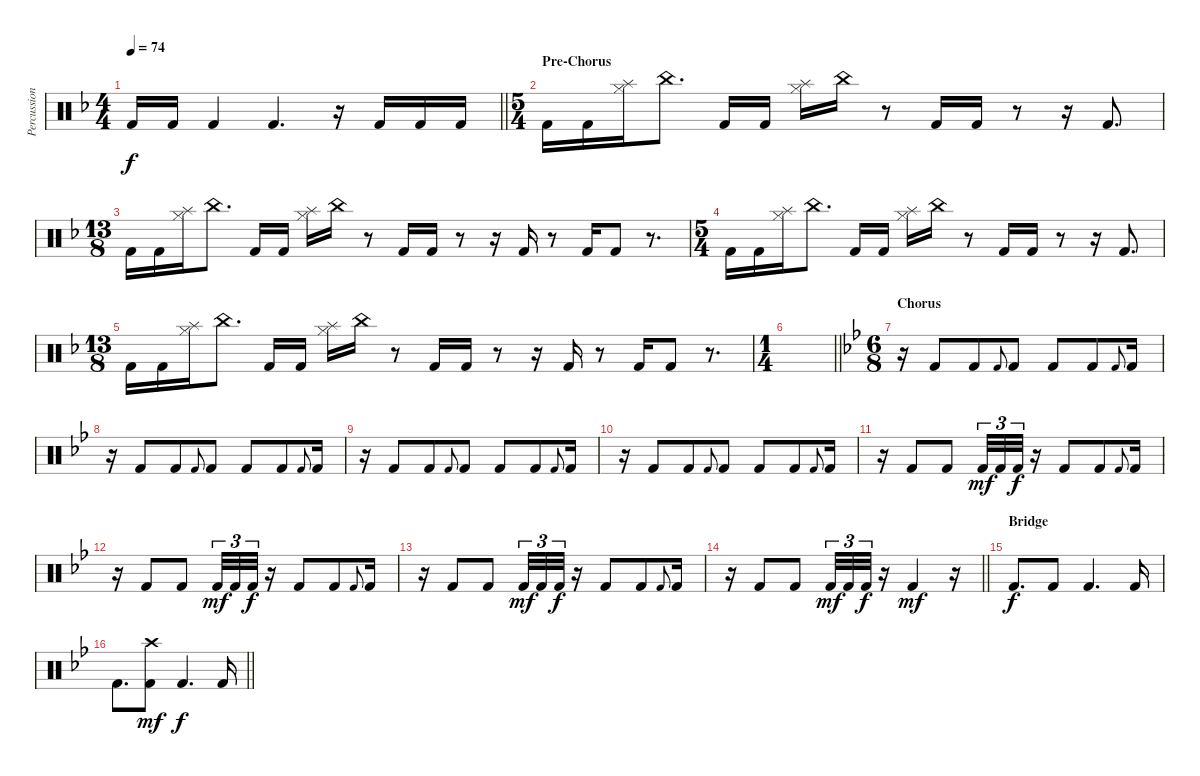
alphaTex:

\track ("Percussion" "Percussion") {instrument percussion}
\staff {score}
\articulation defaults
\ts (4 4)
\tempo 74
\clef neutral
\barLineRight lightlight
\ks f "Kick (hit) 2".16{dy f} "Kick (hit) 2".16 "Kick (hit) 2".4 "Kick (hit) 2".4{d}
r.16 "Kick (hit) 2".16 "Kick (hit) 2".16 "Kick (hit) 2".16 |
\ts (5 4)
\section ("" "Pre-Chorus")
"Kick (hit) 2".16 "Kick (hit) 2".16 ("Hi-Hat (closed)" "Splash (hit)").16 "China (hit)".8{d} "Kick (hit) 2".16 "Kick (hit) 2".16 ("Hi-Hat (closed)" "Splash (hit)").16 "China (hit)".16 r.8 "Kick (hit) 2".16 "Kick (hit) 2".16 r.8 r.16 "Kick (hit) 2".8{d} |
\ts (13 8)
"Kick (hit) 2".16 "Kick (hit) 2".16 ("Hi-Hat (closed)" "Splash (hit)").16 "China (hit)".8{d} "Kick (hit) 2".16 "Kick (hit) 2".16 ("Hi-Hat (closed)" "Splash (hit)").16 "China (hit)".16 r.8 "Kick (hit) 2".16 "Kick (hit) 2".16 r.8 r.16 "Kick (hit) 2".16 r.8 "Kick (hit) 2".16 "Kick (hit) 2".8 r.8{d} |
\ts (5 4)
"Kick (hit) 2".16 "Kick (hit) 2".16 ("Hi-Hat (closed)" "Splash (hit)").16 "China (hit)".8{d} "Kick (hit) 2".16 "Kick (hit) 2".16 ("Hi-Hat (closed)" "Splash (hit)").16 "China (hit)".16 r.8 "Kick (hit) 2".16 "Kick (hit) 2".16 r.8 r.16 "Kick (hit) 2".8{d} |
\ts (13 8)
"Kick (hit) 2".16 "Kick (hit) 2".16 ("Splash (hit)" "Hi-Hat (closed)").16 "China (hit)".8{d} "Kick (hit) 2".16 "Kick (hit) 2".16 ("Splash (hit)" "Hi-Hat (closed)").16 "China (hit)".16 r.8 "Kick (hit) 2".16 "Kick (hit) 2".16 r.8 r.16 "Kick (hit) 2".16 r.8 "Kick (hit) 2".16 "Kick (hit) 2".8 r.8{d} |
\ts (1 4)
\barLineRight lightlight
|
\ts (6 8)
\section ("" "Chorus")
\ks bb
r.16 "Kick (hit) 2".8 "Kick (hit) 2".8 "Kick (hit) 2".8{gr onbeat} "Kick (hit) 2".8 "Kick (hit) 2".8 "Kick (hit) 2".8 "Kick (hit) 2".8{gr onbeat} "Kick (hit) 2".16 |
r.16 "Kick (hit) 2".8 "Kick (hit) 2".8 "Kick (hit) 2".8{gr onbeat} "Kick (hit) 2".8 "Kick (hit) 2".8 "Kick (hit) 2".8 "Kick (hit) 2".8{gr onbeat} "Kick (hit) 2".16 |
r.16 "Kick (hit) 2".8 "Kick (hit) 2".8 "Kick (hit) 2".8{gr onbeat} "Kick (hit) 2".8 "Kick (hit) 2".8 "Kick (hit) 2".8 "Kick (hit) 2".8{gr onbeat} "Kick (hit) 2".16 |
r.16 "Kick (hit) 2".8 "Kick (hit) 2".8 "Kick (hit) 2".8{gr onbeat} "Kick (hit) 2".8 "Kick (hit) 2".8 "Kick (hit) 2".8 "Kick (hit) 2".8{gr onbeat} "Kick (hit) 2".16 |
r.16 "Kick (hit) 2".8 "Kick (hit) 2".8 "Kick (hit) 2".32{tu (3 2) dy mf} "Kick (hit) 2".32{tu (3 2)} "Kick (hit) 2".32{tu (3 2) dy f} r.16 "Kick (hit) 2".8 "Kick (hit) 2".8 "Kick (hit) 2".8{gr onbeat} "Kick (hit) 2".16 |
r.16 "Kick (hit) 2".8 "Kick (hit) 2".8 "Kick (hit) 2".32{tu (3 2) dy mf} "Kick (hit) 2".32{tu (3 2)} "Kick (hit) 2".32{tu (3 2) dy f} r.16 "Kick (hit) 2".8 "Kick (hit) 2".8 "Kick (hit) 2".8{gr onbeat} "Kick (hit) 2".16 |
r.16 "Kick (hit) 2".8 "Kick (hit) 2".8 "Kick (hit) 2".32{tu (3 2) dy mf} "Kick (hit) 2".32{tu (3 2)} "Kick (hit) 2".32{tu (3 2) dy f} r.16 "Kick (hit) 2".8 "Kick (hit) 2".8 "Kick (hit) 2".8{gr onbeat} "Kick (hit) 2".16 |
\barLineRight lightlight
r.16 "Kick (hit) 2".8 "Kick (hit) 2".8 "Kick (hit) 2".32{tu (3 2) dy mf} "Kick (hit) 2".32{tu (3 2)} "Kick (hit) 2".32{tu (3 2) dy f} r.16 "Kick (hit) 2".4{dy mf} r.16 |
\section ("" "Bridge")
"Kick (hit) 2".8{d dy f} "Kick (hit) 2".8 "Kick (hit) 2".4{d} "Kick (hit) 2".16 |
\barLineRight lightlight "Kick (hit) 2".8{d}
("Crash high (hit)" "Kick (hit) 2").8{dy mf} "Kick (hit) 2".4{d dy f} "Kick (hit) 2".16
